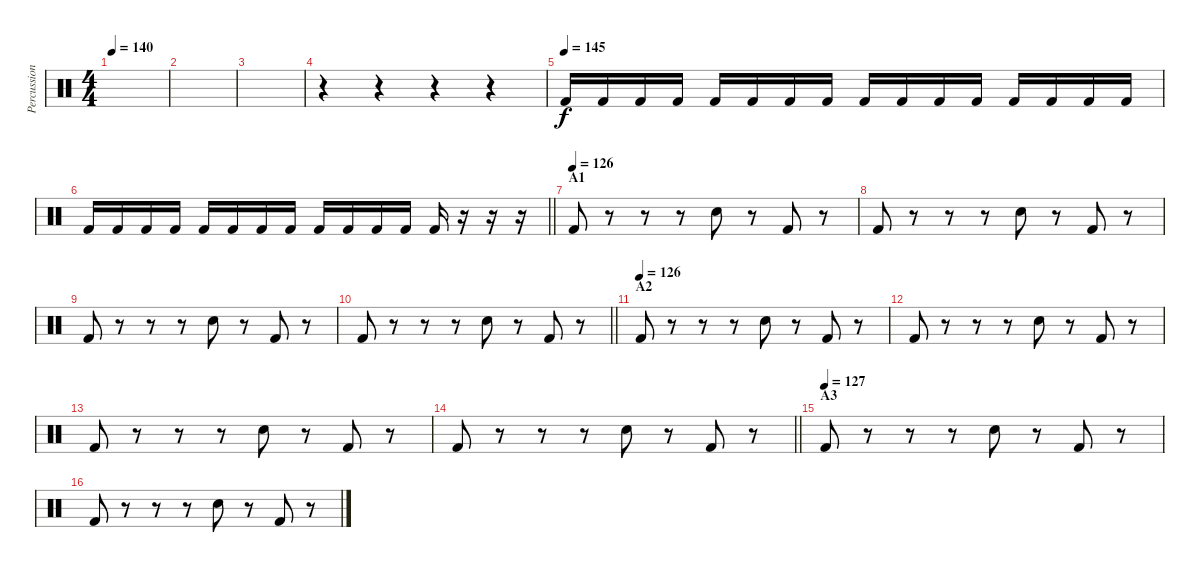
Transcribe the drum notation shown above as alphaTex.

\track ("Percussion" "Percussion") {instrument percussion}
\staff {score}
\articulation defaults
\ts (4 4)
\tempo 140
\clef neutral
\ks c
|
|
|
r.4 r.4 r.4 r.4{volume 0} |
\tempo (145)
"Kick (hit) 2".16 "Kick (hit) 2".16 "Kick (hit) 2".16 "Kick (hit) 2".16 "Kick (hit) 2".16 "Kick (hit) 2".16 "Kick (hit) 2".16 "Kick (hit) 2".16 "Kick (hit) 2".16{volume 13} "Kick (hit) 2".16 "Kick (hit) 2".16 "Kick (hit) 2".16 "Kick (hit) 2".16 "Kick (hit) 2".16 "Kick (hit) 2".16 "Kick (hit) 2".16 |
\barLineRight lightlight "Kick (hit) 2".16 "Kick (hit) 2".16 "Kick (hit) 2".16 "Kick (hit) 2".16 "Kick (hit) 2".16 "Kick (hit) 2".16 "Kick (hit) 2".16 "Kick (hit) 2".16 "Kick (hit) 2".16 "Kick (hit) 2".16 "Kick (hit) 2".16 "Kick (hit) 2".16 "Kick (hit) 2".16
r.16 r.16 r.16 |
\section ("" "A1")
\tempo (126)
"Kick (hit) 2".8 r.8 r.8 r.8 "Electric Snare (hit)".8 r.8 "Kick (hit) 2".8 r.8 |
"Kick (hit) 2".8 r.8 r.8 r.8 "Electric Snare (hit)".8 r.8 "Kick (hit) 2".8 r.8 |
"Kick (hit) 2".8 r.8 r.8 r.8 "Electric Snare (hit)".8 r.8 "Kick (hit) 2".8 r.8 |
\barLineRight lightlight "Kick (hit) 2".8
r.8 r.8 r.8 "Electric Snare (hit)".8 r.8 "Kick (hit) 2".8 r.8 |
\section ("" "A2")
\tempo (126)
"Kick (hit) 2".8 r.8 r.8 r.8 "Electric Snare (hit)".8 r.8 "Kick (hit) 2".8 r.8 |
"Kick (hit) 2".8 r.8 r.8 r.8 "Electric Snare (hit)".8 r.8 "Kick (hit) 2".8 r.8 |
"Kick (hit) 2".8 r.8 r.8 r.8 "Electric Snare (hit)".8 r.8 "Kick (hit) 2".8 r.8 |
\barLineRight lightlight "Kick (hit) 2".8
r.8 r.8 r.8 "Electric Snare (hit)".8 r.8 "Kick (hit) 2".8 r.8 |
\section ("" "A3")
\tempo (127)
"Kick (hit) 2".8 r.8 r.8 r.8 "Electric Snare (hit)".8 r.8 "Kick (hit) 2".8 r.8 |
"Kick (hit) 2".8 r.8 r.8 r.8 "Electric Snare (hit)".8 r.8 "Kick (hit) 2".8 r.8
